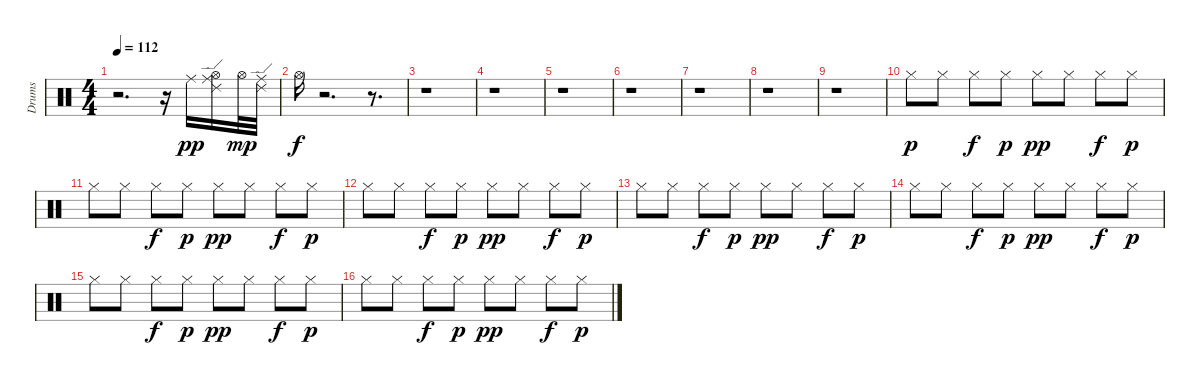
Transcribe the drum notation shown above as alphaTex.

\track ("Drums" "Drums") {instrument percussion}
\staff {score}
\articulation defaults
\ts (4 4)
\tempo 112
\clef neutral
\ks c
r.2{d dy pp} r.16 "Ride (middle)".16 ("Hi-Hat (open)" "Ride (middle)" "Ride (edge) 2").16 "Hi-Hat (open)".32{dy mp} ("Ride (middle)" "Ride (edge) 2").32 |
"Hi-Hat (open)".16{dy f} r.2{d} r.8{d} |
r.1 |
r.1 |
r.1 |
r.1 |
r.1 |
r.1 |
r.1 |
"Hi-Hat (closed)".8{dy p} "Hi-Hat (closed)".8 "Hi-Hat (closed)".8{dy f} "Hi-Hat (closed)".8{dy p} "Hi-Hat (closed)".8{dy pp} "Hi-Hat (closed)".8 "Hi-Hat (closed)".8{dy f} "Hi-Hat (closed)".8{dy p} |
"Hi-Hat (closed)".8 "Hi-Hat (closed)".8 "Hi-Hat (closed)".8{dy f} "Hi-Hat (closed)".8{dy p} "Hi-Hat (closed)".8{dy pp} "Hi-Hat (closed)".8 "Hi-Hat (closed)".8{dy f} "Hi-Hat (closed)".8{dy p} |
"Hi-Hat (closed)".8 "Hi-Hat (closed)".8 "Hi-Hat (closed)".8{dy f} "Hi-Hat (closed)".8{dy p} "Hi-Hat (closed)".8{dy pp} "Hi-Hat (closed)".8 "Hi-Hat (closed)".8{dy f} "Hi-Hat (closed)".8{dy p} |
"Hi-Hat (closed)".8 "Hi-Hat (closed)".8 "Hi-Hat (closed)".8{dy f} "Hi-Hat (closed)".8{dy p} "Hi-Hat (closed)".8{dy pp} "Hi-Hat (closed)".8 "Hi-Hat (closed)".8{dy f} "Hi-Hat (closed)".8{dy p} |
"Hi-Hat (closed)".8 "Hi-Hat (closed)".8 "Hi-Hat (closed)".8{dy f} "Hi-Hat (closed)".8{dy p} "Hi-Hat (closed)".8{dy pp} "Hi-Hat (closed)".8 "Hi-Hat (closed)".8{dy f} "Hi-Hat (closed)".8{dy p} |
"Hi-Hat (closed)".8 "Hi-Hat (closed)".8 "Hi-Hat (closed)".8{dy f} "Hi-Hat (closed)".8{dy p} "Hi-Hat (closed)".8{dy pp} "Hi-Hat (closed)".8 "Hi-Hat (closed)".8{dy f} "Hi-Hat (closed)".8{dy p} |
"Hi-Hat (closed)".8 "Hi-Hat (closed)".8 "Hi-Hat (closed)".8{dy f} "Hi-Hat (closed)".8{dy p} "Hi-Hat (closed)".8{dy pp} "Hi-Hat (closed)".8 "Hi-Hat (closed)".8{dy f} "Hi-Hat (closed)".8{dy p}
